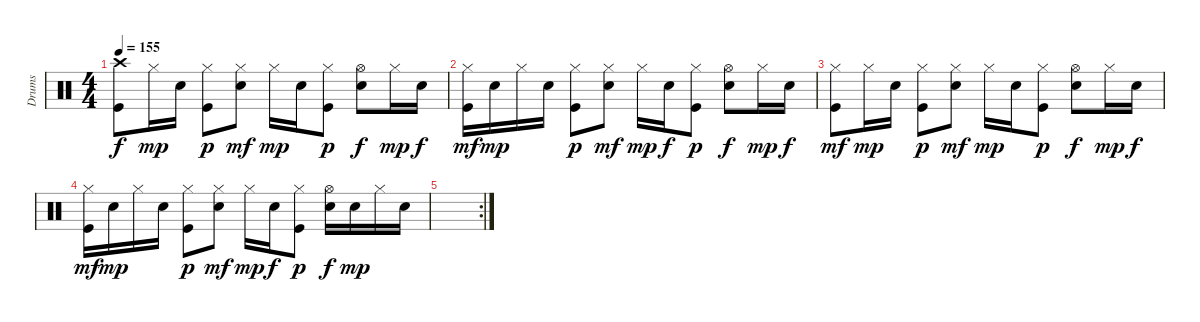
\track ("Drums" "Drums") {instrument percussion}
\staff {score}
\articulation defaults
\ts (4 4)
\tempo 155
\clef neutral
\ks c
("Crash high (hit)" "Kick (hit)").8{dy f} "Hi-Hat (closed)".16{dy mp} "Snare (hit) 2".16 ("Kick (hit)" "Hi-Hat (closed)").8{dy p} ("Snare (hit) 2" "Hi-Hat (closed)").8{dy mf} "Hi-Hat (closed)".16{dy mp} "Snare (hit) 2".16 ("Hi-Hat (closed)" "Kick (hit)").8{dy p} ("Snare (hit) 2" "Hi-Hat (open)").8{dy f} "Hi-Hat (closed)".16{dy mp} "Snare (hit) 2".16{dy f} |
("Hi-Hat (closed)" "Kick (hit)").16{dy mf} "Snare (hit) 2".16{dy mp} "Hi-Hat (closed)".16 "Snare (hit) 2".16 ("Kick (hit)" "Hi-Hat (closed)").8{dy p} ("Snare (hit) 2" "Hi-Hat (closed)").8{dy mf} "Hi-Hat (closed)".16{dy mp} "Snare (hit) 2".16{dy f} ("Hi-Hat (closed)" "Kick (hit)").8{dy p} ("Snare (hit) 2" "Hi-Hat (open)").8{dy f} "Hi-Hat (closed)".16{dy mp} "Snare (hit) 2".16{dy f} |
("Hi-Hat (closed)" "Kick (hit)").8{dy mf} "Hi-Hat (closed)".16{dy mp} "Snare (hit) 2".16 ("Kick (hit)" "Hi-Hat (closed)").8{dy p} ("Snare (hit) 2" "Hi-Hat (closed)").8{dy mf} "Hi-Hat (closed)".16{dy mp} "Snare (hit) 2".16 ("Hi-Hat (closed)" "Kick (hit)").8{dy p} ("Snare (hit) 2" "Hi-Hat (open)").8{dy f} "Hi-Hat (closed)".16{dy mp} "Snare (hit) 2".16{dy f} |
("Hi-Hat (closed)" "Kick (hit)").16{dy mf} "Snare (hit) 2".16{dy mp} "Hi-Hat (closed)".16 "Snare (hit) 2".16 ("Kick (hit)" "Hi-Hat (closed)").8{dy p} ("Snare (hit) 2" "Hi-Hat (closed)").8{dy mf} "Hi-Hat (closed)".16{dy mp} "Snare (hit) 2".16{dy f} ("Hi-Hat (closed)" "Kick (hit)").8{dy p} ("Snare (hit) 2" "Hi-Hat (open)").16{dy f} "Snare (hit) 2".16{dy mp} "Hi-Hat (closed)".16 "Snare (hit) 2".16 |
\rc 2
